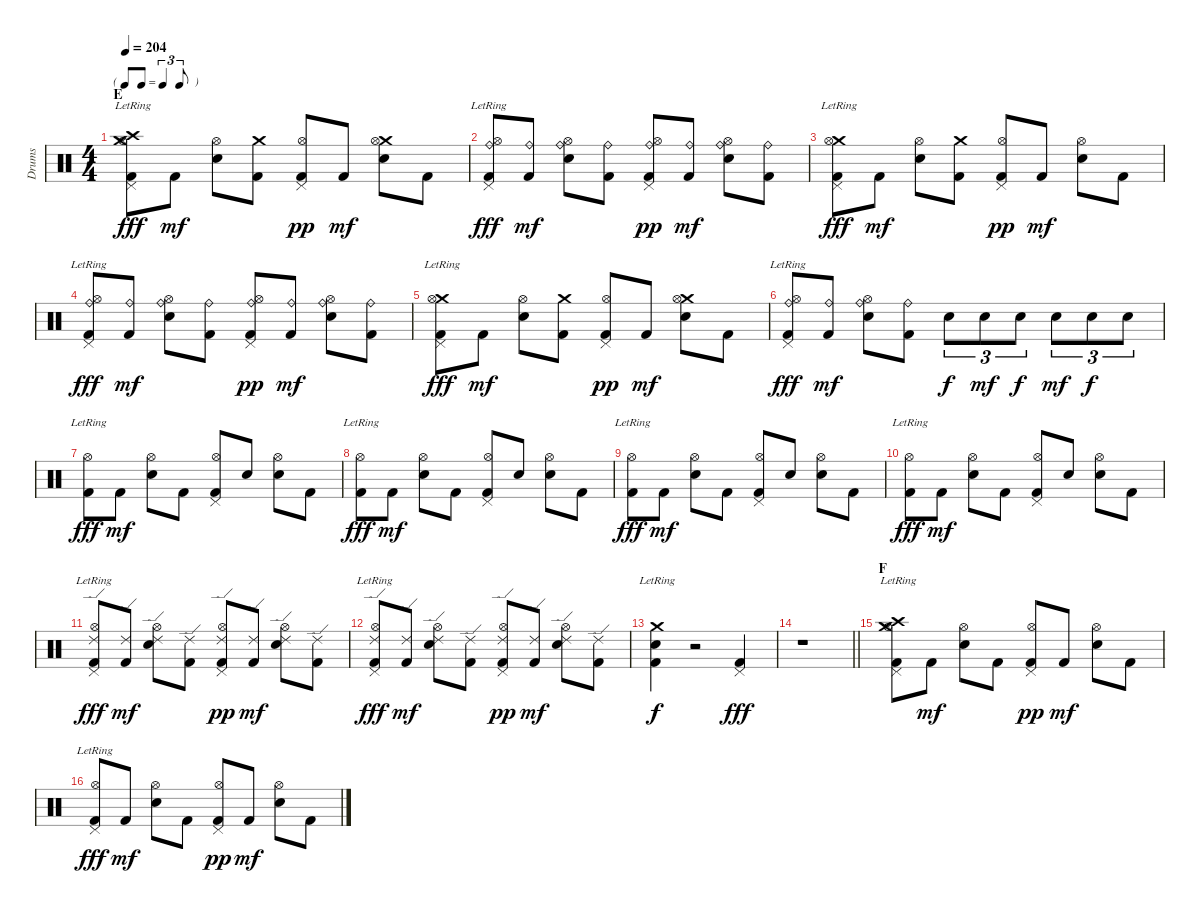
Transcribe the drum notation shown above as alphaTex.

\track ("Drums" "Drums") {instrument percussion}
\staff {score}
\articulation defaults
\ts (4 4)
\tf triplet8th
\section ("" "E")
\tempo 204
\clef neutral
\ks c
("Crash high (hit)" "Crash medium (hit)" "Pedal Hi-Hat (hit)" "Hi-Hat (open)" "Kick (hit) 2"{lr}).8{dy fff} "Kick (hit) 2".8{dy mf} ("Hi-Hat (open)" "Electric Snare (hit)").8 ("Crash medium (hit)" "Kick (hit) 2").8 ("Pedal Hi-Hat (hit)" "Hi-Hat (open)" "Kick (hit) 2").8{dy pp} "Kick (hit) 2".8{dy mf} ("Crash medium (hit)" "Hi-Hat (open)" "Electric Snare (hit)").8 "Kick (hit) 2".8 |
("Ride (bell)" "Pedal Hi-Hat (hit)" "Hi-Hat (open)" "Kick (hit) 2"{lr}).8{dy fff} ("Ride (bell)" "Kick (hit) 2").8{dy mf} ("Ride (bell)" "Hi-Hat (open)" "Electric Snare (hit)").8 ("Ride (bell)" "Kick (hit) 2").8 ("Ride (bell)" "Pedal Hi-Hat (hit)" "Hi-Hat (open)" "Kick (hit) 2").8{dy pp} ("Ride (bell)" "Kick (hit) 2").8{dy mf} ("Ride (bell)" "Hi-Hat (open)" "Electric Snare (hit)").8 ("Ride (bell)" "Kick (hit) 2").8 |
("Crash medium (hit)" "Pedal Hi-Hat (hit)" "Hi-Hat (open)" "Kick (hit) 2"{lr}).8{dy fff} "Kick (hit) 2".8{dy mf} ("Hi-Hat (open)" "Electric Snare (hit)").8 ("Crash medium (hit)" "Kick (hit) 2").8 ("Pedal Hi-Hat (hit)" "Hi-Hat (open)" "Kick (hit) 2").8{dy pp} "Kick (hit) 2".8{dy mf} ("Hi-Hat (open)" "Electric Snare (hit)").8 "Kick (hit) 2".8 |
("Ride (bell)" "Pedal Hi-Hat (hit)" "Hi-Hat (open)" "Kick (hit) 2"{lr}).8{dy fff} ("Ride (bell)" "Kick (hit) 2").8{dy mf} ("Ride (bell)" "Hi-Hat (open)" "Electric Snare (hit)").8 ("Ride (bell)" "Kick (hit) 2").8 ("Ride (bell)" "Pedal Hi-Hat (hit)" "Hi-Hat (open)" "Kick (hit) 2").8{dy pp} ("Ride (bell)" "Kick (hit) 2").8{dy mf} ("Ride (bell)" "Hi-Hat (open)" "Electric Snare (hit)").8 ("Ride (bell)" "Kick (hit) 2").8 |
("Crash medium (hit)" "Pedal Hi-Hat (hit)" "Hi-Hat (open)" "Kick (hit) 2"{lr}).8{dy fff} "Kick (hit) 2".8{dy mf} ("Hi-Hat (open)" "Electric Snare (hit)").8 ("Crash medium (hit)" "Kick (hit) 2").8 ("Pedal Hi-Hat (hit)" "Hi-Hat (open)" "Kick (hit) 2").8{dy pp} "Kick (hit) 2".8{dy mf} ("Crash medium (hit)" "Hi-Hat (open)" "Electric Snare (hit)").8 "Kick (hit) 2".8 |
("Ride (bell)" "Pedal Hi-Hat (hit)" "Hi-Hat (open)" "Kick (hit) 2"{lr}).8{dy fff} ("Ride (bell)" "Kick (hit) 2").8{dy mf} ("Ride (bell)" "Hi-Hat (open)" "Electric Snare (hit)").8 ("Ride (bell)" "Kick (hit) 2").8 "Electric Snare (hit)".8{tu (3 2) dy f} "Electric Snare (hit)".8{tu (3 2) dy mf} "Electric Snare (hit)".8{tu (3 2) dy f} "Electric Snare (hit)".8{tu (3 2) dy mf} "Electric Snare (hit)".8{tu (3 2) dy f} "Electric Snare (hit)".8{tu (3 2)} |
("Hi-Hat (open)" "Kick (hit) 2"{lr}).8{dy fff} "Kick (hit) 2".8{dy mf} ("Hi-Hat (open)" "Electric Snare (hit)").8 "Kick (hit) 2".8 ("Pedal Hi-Hat (hit)" "Hi-Hat (open)" "Kick (hit) 2").8 "Electric Snare (hit)".8 ("Hi-Hat (open)" "Electric Snare (hit)").8 "Kick (hit) 2".8 |
("Hi-Hat (open)" "Kick (hit) 2"{lr}).8{dy fff} "Kick (hit) 2".8{dy mf} ("Hi-Hat (open)" "Electric Snare (hit)").8 "Kick (hit) 2".8 ("Pedal Hi-Hat (hit)" "Hi-Hat (open)" "Kick (hit) 2").8 "Electric Snare (hit)".8 ("Hi-Hat (open)" "Electric Snare (hit)").8 "Kick (hit) 2".8 |
("Hi-Hat (open)" "Kick (hit) 2"{lr}).8{dy fff} "Kick (hit) 2".8{dy mf} ("Hi-Hat (open)" "Electric Snare (hit)").8 "Kick (hit) 2".8 ("Pedal Hi-Hat (hit)" "Hi-Hat (open)" "Kick (hit) 2").8 "Electric Snare (hit)".8 ("Hi-Hat (open)" "Electric Snare (hit)").8 "Kick (hit) 2".8 |
("Hi-Hat (open)" "Kick (hit) 2"{lr}).8{dy fff} "Kick (hit) 2".8{dy mf} ("Hi-Hat (open)" "Electric Snare (hit)").8 "Kick (hit) 2".8 ("Pedal Hi-Hat (hit)" "Hi-Hat (open)" "Kick (hit) 2").8 "Electric Snare (hit)".8 ("Hi-Hat (open)" "Electric Snare (hit)").8 "Kick (hit) 2".8 |
("Ride (edge) 2" "Pedal Hi-Hat (hit)" "Hi-Hat (open)" "Kick (hit) 2"{lr}).8{dy fff} ("Ride (edge) 2" "Kick (hit) 2").8{dy mf} ("Ride (edge) 2" "Hi-Hat (open)" "Electric Snare (hit)").8 ("Ride (edge) 2" "Kick (hit) 2").8 ("Ride (edge) 2" "Pedal Hi-Hat (hit)" "Hi-Hat (open)" "Kick (hit) 2").8{dy pp} ("Ride (edge) 2" "Kick (hit) 2").8{dy mf} ("Ride (edge) 2" "Hi-Hat (open)" "Electric Snare (hit)").8 ("Ride (edge) 2" "Kick (hit) 2").8 |
("Ride (edge) 2" "Pedal Hi-Hat (hit)" "Hi-Hat (open)" "Kick (hit) 2"{lr}).8{dy fff} ("Ride (edge) 2" "Kick (hit) 2").8{dy mf} ("Ride (edge) 2" "Hi-Hat (open)" "Electric Snare (hit)").8 ("Ride (edge) 2" "Kick (hit) 2").8 ("Ride (edge) 2" "Pedal Hi-Hat (hit)" "Hi-Hat (open)" "Kick (hit) 2").8{dy pp} ("Ride (edge) 2" "Kick (hit) 2").8{dy mf} ("Ride (edge) 2" "Hi-Hat (open)" "Electric Snare (hit)").8 ("Ride (edge) 2" "Kick (hit) 2").8 |
("Crash medium (hit)"{lr} "Kick (hit) 2"{lr} "Electric Snare (hit)"{lr}).4{dy f} r.2 ("Pedal Hi-Hat (hit)" "Kick (hit) 2").4{dy fff} |
\barLineRight lightlight
r.1 |
\section ("" "F")
("Crash high (hit)" "Crash medium (hit)" "Pedal Hi-Hat (hit)" "Hi-Hat (open)" "Kick (hit) 2"{lr}).8 "Kick (hit) 2".8{dy mf} ("Hi-Hat (open)" "Electric Snare (hit)").8 "Kick (hit) 2".8 ("Pedal Hi-Hat (hit)" "Hi-Hat (open)" "Kick (hit) 2").8{dy pp} "Kick (hit) 2".8{dy mf} ("Hi-Hat (open)" "Electric Snare (hit)").8 "Kick (hit) 2".8 |
("Pedal Hi-Hat (hit)" "Hi-Hat (open)" "Kick (hit) 2"{lr}).8{dy fff} "Kick (hit) 2".8{dy mf} ("Hi-Hat (open)" "Electric Snare (hit)").8 "Kick (hit) 2".8 ("Pedal Hi-Hat (hit)" "Hi-Hat (open)" "Kick (hit) 2").8{dy pp} "Kick (hit) 2".8{dy mf} ("Hi-Hat (open)" "Electric Snare (hit)").8 "Kick (hit) 2".8
